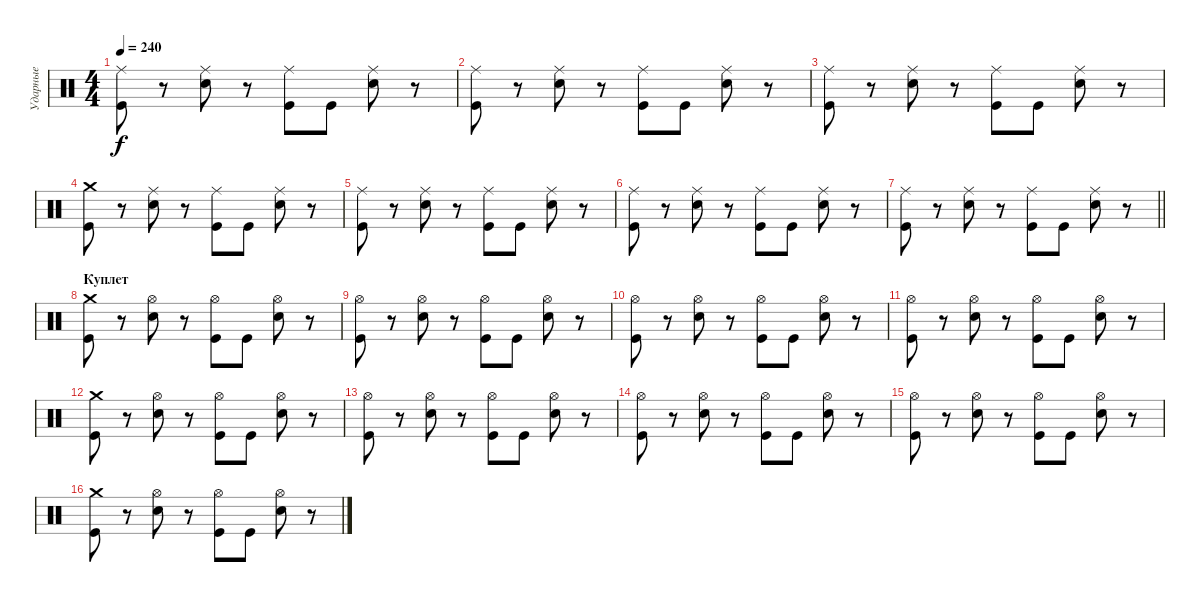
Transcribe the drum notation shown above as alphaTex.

\track ("Ударные" "Ударные") {instrument percussion}
\staff {score}
\articulation defaults
\ts (4 4)
\tempo 240
\clef neutral
\ks c
("Ride (middle)" "Kick (hit)").8{dy f} r.8 ("Ride (middle)" "Electric Snare (hit)").8 r.8 ("Ride (middle)" "Kick (hit)").8 "Kick (hit)".8 ("Ride (middle)" "Electric Snare (hit)").8 r.8 |
("Ride (middle)" "Kick (hit)").8 r.8 ("Ride (middle)" "Electric Snare (hit)").8 r.8 ("Ride (middle)" "Kick (hit)").8 "Kick (hit)".8 ("Ride (middle)" "Electric Snare (hit)").8 r.8 |
("Ride (middle)" "Kick (hit)").8 r.8 ("Ride (middle)" "Electric Snare (hit)").8 r.8 ("Ride (middle)" "Kick (hit)").8 "Kick (hit)".8 ("Ride (middle)" "Electric Snare (hit)").8 r.8 |
("Crash medium (hit)" "Kick (hit)").8 r.8 ("Ride (middle)" "Electric Snare (hit)").8 r.8 ("Ride (middle)" "Kick (hit)").8 "Kick (hit)".8 ("Ride (middle)" "Electric Snare (hit)").8 r.8 |
("Ride (middle)" "Kick (hit)").8 r.8 ("Ride (middle)" "Electric Snare (hit)").8 r.8 ("Ride (middle)" "Kick (hit)").8 "Kick (hit)".8 ("Ride (middle)" "Electric Snare (hit)").8 r.8 |
("Ride (middle)" "Kick (hit)").8 r.8 ("Ride (middle)" "Electric Snare (hit)").8 r.8 ("Ride (middle)" "Kick (hit)").8 "Kick (hit)".8 ("Ride (middle)" "Electric Snare (hit)").8 r.8 |
\barLineRight lightlight
("Ride (middle)" "Kick (hit)").8 r.8 ("Ride (middle)" "Electric Snare (hit)").8 r.8 ("Ride (middle)" "Kick (hit)").8 "Kick (hit)".8 ("Ride (middle)" "Electric Snare (hit)").8 r.8 |
\section ("" "Куплет")
("Crash medium (hit)" "Kick (hit)").8 r.8 ("Hi-Hat (open)" "Electric Snare (hit)").8 r.8 ("Hi-Hat (open)" "Kick (hit)").8 "Kick (hit)".8 ("Hi-Hat (open)" "Electric Snare (hit)").8 r.8 |
("Hi-Hat (open)" "Kick (hit)").8 r.8 ("Hi-Hat (open)" "Electric Snare (hit)").8 r.8 ("Hi-Hat (open)" "Kick (hit)").8 "Kick (hit)".8 ("Hi-Hat (open)" "Electric Snare (hit)").8 r.8 |
("Hi-Hat (open)" "Kick (hit)").8 r.8 ("Hi-Hat (open)" "Electric Snare (hit)").8 r.8 ("Hi-Hat (open)" "Kick (hit)").8 "Kick (hit)".8 ("Hi-Hat (open)" "Electric Snare (hit)").8 r.8 |
("Hi-Hat (open)" "Kick (hit)").8 r.8 ("Hi-Hat (open)" "Electric Snare (hit)").8 r.8 ("Hi-Hat (open)" "Kick (hit)").8 "Kick (hit)".8 ("Hi-Hat (open)" "Electric Snare (hit)").8 r.8 |
("Crash medium (hit)" "Kick (hit)").8 r.8 ("Hi-Hat (open)" "Electric Snare (hit)").8 r.8 ("Hi-Hat (open)" "Kick (hit)").8 "Kick (hit)".8 ("Hi-Hat (open)" "Electric Snare (hit)").8 r.8 |
("Hi-Hat (open)" "Kick (hit)").8 r.8 ("Hi-Hat (open)" "Electric Snare (hit)").8 r.8 ("Hi-Hat (open)" "Kick (hit)").8 "Kick (hit)".8 ("Hi-Hat (open)" "Electric Snare (hit)").8 r.8 |
("Hi-Hat (open)" "Kick (hit)").8 r.8 ("Hi-Hat (open)" "Electric Snare (hit)").8 r.8 ("Hi-Hat (open)" "Kick (hit)").8 "Kick (hit)".8 ("Hi-Hat (open)" "Electric Snare (hit)").8 r.8 |
("Hi-Hat (open)" "Kick (hit)").8 r.8 ("Hi-Hat (open)" "Electric Snare (hit)").8 r.8 ("Hi-Hat (open)" "Kick (hit)").8 "Kick (hit)".8 ("Hi-Hat (open)" "Electric Snare (hit)").8 r.8 |
("Crash medium (hit)" "Kick (hit)").8 r.8 ("Hi-Hat (open)" "Electric Snare (hit)").8 r.8 ("Hi-Hat (open)" "Kick (hit)").8 "Kick (hit)".8 ("Hi-Hat (open)" "Electric Snare (hit)").8 r.8
